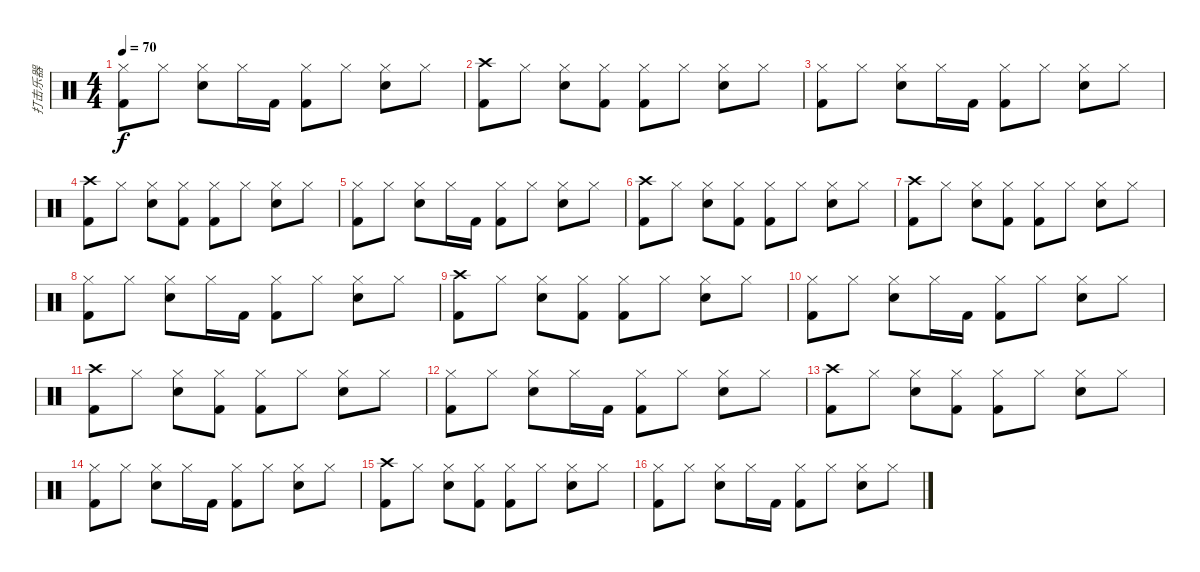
\track ("打击乐器" "打击乐器") {instrument percussion}
\staff {score}
\articulation defaults
\ts (4 4)
\tempo 70
\clef neutral
\ks c
("Hi-Hat (closed)" "Kick (hit) 2").8{dy f} "Hi-Hat (closed)".8 ("Hi-Hat (closed)" "Snare (hit) 2").8 "Hi-Hat (closed)".16 "Kick (hit) 2".16 ("Hi-Hat (closed)" "Kick (hit) 2").8 "Hi-Hat (closed)".8 ("Hi-Hat (closed)" "Snare (hit) 2").8 "Hi-Hat (closed)".8 |
("Crash high (hit)" "Kick (hit) 2").8 "Hi-Hat (closed)".8 ("Hi-Hat (closed)" "Snare (hit) 2").8 ("Hi-Hat (closed)" "Kick (hit) 2").8 ("Hi-Hat (closed)" "Kick (hit) 2").8 "Hi-Hat (closed)".8 ("Hi-Hat (closed)" "Snare (hit) 2").8 "Hi-Hat (closed)".8 |
("Hi-Hat (closed)" "Kick (hit) 2").8 "Hi-Hat (closed)".8 ("Hi-Hat (closed)" "Snare (hit) 2").8 "Hi-Hat (closed)".16 "Kick (hit) 2".16 ("Hi-Hat (closed)" "Kick (hit) 2").8 "Hi-Hat (closed)".8 ("Hi-Hat (closed)" "Snare (hit) 2").8 "Hi-Hat (closed)".8 |
("Crash high (hit)" "Kick (hit) 2").8 "Hi-Hat (closed)".8 ("Hi-Hat (closed)" "Snare (hit) 2").8 ("Hi-Hat (closed)" "Kick (hit) 2").8 ("Hi-Hat (closed)" "Kick (hit) 2").8 "Hi-Hat (closed)".8 ("Hi-Hat (closed)" "Snare (hit) 2").8 "Hi-Hat (closed)".8 |
("Hi-Hat (closed)" "Kick (hit) 2").8 "Hi-Hat (closed)".8 ("Hi-Hat (closed)" "Snare (hit) 2").8 "Hi-Hat (closed)".16 "Kick (hit) 2".16 ("Hi-Hat (closed)" "Kick (hit) 2").8 "Hi-Hat (closed)".8 ("Hi-Hat (closed)" "Snare (hit) 2").8 "Hi-Hat (closed)".8 |
("Crash high (hit)" "Kick (hit) 2").8 "Hi-Hat (closed)".8 ("Hi-Hat (closed)" "Snare (hit) 2").8 ("Hi-Hat (closed)" "Kick (hit) 2").8 ("Hi-Hat (closed)" "Kick (hit) 2").8 "Hi-Hat (closed)".8 ("Hi-Hat (closed)" "Snare (hit) 2").8 "Hi-Hat (closed)".8 |
("Crash high (hit)" "Kick (hit) 2").8 "Hi-Hat (closed)".8 ("Hi-Hat (closed)" "Snare (hit) 2").8 ("Hi-Hat (closed)" "Kick (hit) 2").8 ("Hi-Hat (closed)" "Kick (hit) 2").8 "Hi-Hat (closed)".8 ("Hi-Hat (closed)" "Snare (hit) 2").8 "Hi-Hat (closed)".8 |
("Hi-Hat (closed)" "Kick (hit) 2").8 "Hi-Hat (closed)".8 ("Hi-Hat (closed)" "Snare (hit) 2").8 "Hi-Hat (closed)".16 "Kick (hit) 2".16 ("Hi-Hat (closed)" "Kick (hit) 2").8 "Hi-Hat (closed)".8 ("Hi-Hat (closed)" "Snare (hit) 2").8 "Hi-Hat (closed)".8 |
("Crash high (hit)" "Kick (hit) 2").8 "Hi-Hat (closed)".8 ("Hi-Hat (closed)" "Snare (hit) 2").8 ("Hi-Hat (closed)" "Kick (hit) 2").8 ("Hi-Hat (closed)" "Kick (hit) 2").8 "Hi-Hat (closed)".8 ("Hi-Hat (closed)" "Snare (hit) 2").8 "Hi-Hat (closed)".8 |
("Hi-Hat (closed)" "Kick (hit) 2").8 "Hi-Hat (closed)".8 ("Hi-Hat (closed)" "Snare (hit) 2").8 "Hi-Hat (closed)".16 "Kick (hit) 2".16 ("Hi-Hat (closed)" "Kick (hit) 2").8 "Hi-Hat (closed)".8 ("Hi-Hat (closed)" "Snare (hit) 2").8 "Hi-Hat (closed)".8 |
("Crash high (hit)" "Kick (hit) 2").8 "Hi-Hat (closed)".8 ("Hi-Hat (closed)" "Snare (hit) 2").8 ("Hi-Hat (closed)" "Kick (hit) 2").8 ("Hi-Hat (closed)" "Kick (hit) 2").8 "Hi-Hat (closed)".8 ("Hi-Hat (closed)" "Snare (hit) 2").8 "Hi-Hat (closed)".8 |
("Hi-Hat (closed)" "Kick (hit) 2").8 "Hi-Hat (closed)".8 ("Hi-Hat (closed)" "Snare (hit) 2").8 "Hi-Hat (closed)".16 "Kick (hit) 2".16 ("Hi-Hat (closed)" "Kick (hit) 2").8 "Hi-Hat (closed)".8 ("Hi-Hat (closed)" "Snare (hit) 2").8 "Hi-Hat (closed)".8 |
("Crash high (hit)" "Kick (hit) 2").8 "Hi-Hat (closed)".8 ("Hi-Hat (closed)" "Snare (hit) 2").8 ("Hi-Hat (closed)" "Kick (hit) 2").8 ("Hi-Hat (closed)" "Kick (hit) 2").8 "Hi-Hat (closed)".8 ("Hi-Hat (closed)" "Snare (hit) 2").8 "Hi-Hat (closed)".8 |
("Hi-Hat (closed)" "Kick (hit) 2").8 "Hi-Hat (closed)".8 ("Hi-Hat (closed)" "Snare (hit) 2").8 "Hi-Hat (closed)".16 "Kick (hit) 2".16 ("Hi-Hat (closed)" "Kick (hit) 2").8 "Hi-Hat (closed)".8 ("Hi-Hat (closed)" "Snare (hit) 2").8 "Hi-Hat (closed)".8 |
("Crash high (hit)" "Kick (hit) 2").8 "Hi-Hat (closed)".8 ("Hi-Hat (closed)" "Snare (hit) 2").8 ("Hi-Hat (closed)" "Kick (hit) 2").8 ("Hi-Hat (closed)" "Kick (hit) 2").8 "Hi-Hat (closed)".8 ("Hi-Hat (closed)" "Snare (hit) 2").8 "Hi-Hat (closed)".8 |
("Hi-Hat (closed)" "Kick (hit) 2").8 "Hi-Hat (closed)".8 ("Hi-Hat (closed)" "Snare (hit) 2").8 "Hi-Hat (closed)".16 "Kick (hit) 2".16 ("Hi-Hat (closed)" "Kick (hit) 2").8 "Hi-Hat (closed)".8 ("Hi-Hat (closed)" "Snare (hit) 2").8 "Hi-Hat (closed)".8
